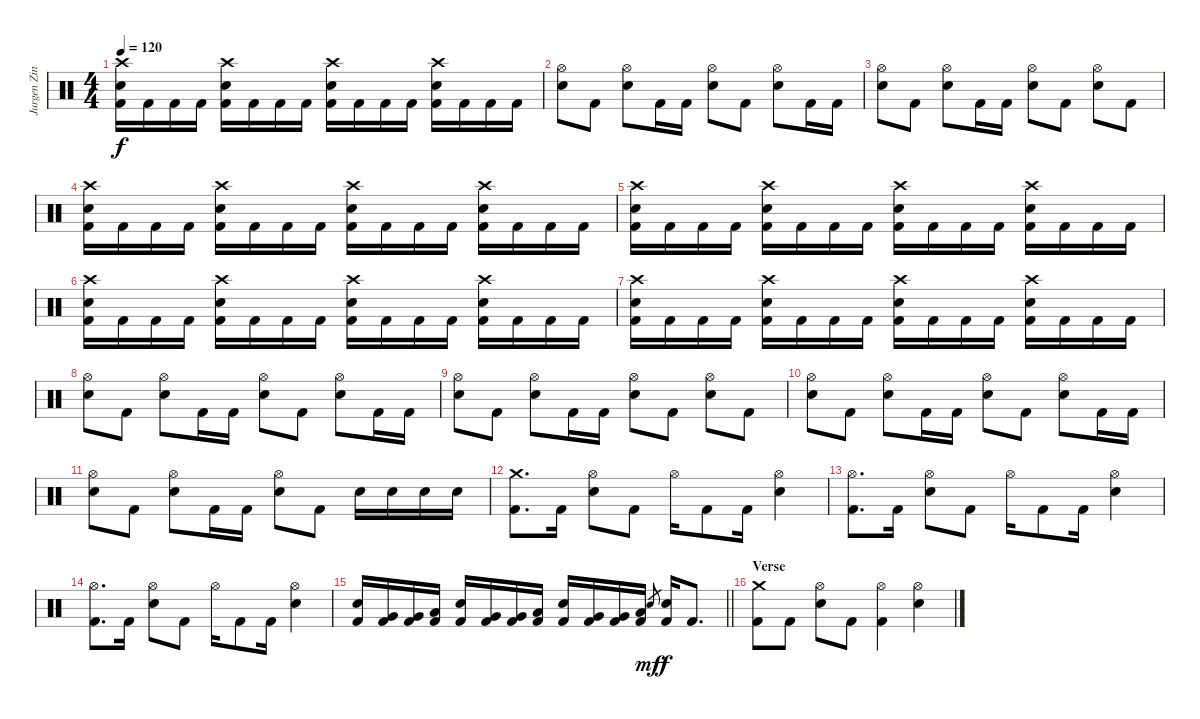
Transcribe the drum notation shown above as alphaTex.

\track ("Jurgen Zing" "Jurgen Zin") {instrument percussion}
\staff {score}
\articulation defaults
\ts (4 4)
\tempo 120
\clef neutral
\ks c
("Crash high (hit)" "Electric Snare (hit)" "Kick (hit) 2").16{dy f} "Kick (hit) 2".16 "Kick (hit) 2".16 "Kick (hit) 2".16 ("Crash high (hit)" "Electric Snare (hit)" "Kick (hit) 2").16 "Kick (hit) 2".16 "Kick (hit) 2".16 "Kick (hit) 2".16 ("Crash high (hit)" "Electric Snare (hit)" "Kick (hit) 2").16 "Kick (hit) 2".16 "Kick (hit) 2".16 "Kick (hit) 2".16 ("Crash high (hit)" "Electric Snare (hit)" "Kick (hit) 2").16 "Kick (hit) 2".16 "Kick (hit) 2".16 "Kick (hit) 2".16 |
("Hi-Hat (open)" "Electric Snare (hit)").8 "Kick (hit) 2".8 ("Hi-Hat (open)" "Electric Snare (hit)").8 "Kick (hit) 2".16 "Kick (hit) 2".16 ("Hi-Hat (open)" "Electric Snare (hit)").8 "Kick (hit) 2".8 ("Hi-Hat (open)" "Electric Snare (hit)").8 "Kick (hit) 2".16 "Kick (hit) 2".16 |
("Hi-Hat (open)" "Electric Snare (hit)").8 "Kick (hit) 2".8 ("Hi-Hat (open)" "Electric Snare (hit)").8 "Kick (hit) 2".16 "Kick (hit) 2".16 ("Hi-Hat (open)" "Electric Snare (hit)").8 "Kick (hit) 2".8 ("Hi-Hat (open)" "Electric Snare (hit)").8 "Kick (hit) 2".8 |
("Crash high (hit)" "Electric Snare (hit)" "Kick (hit) 2").16 "Kick (hit) 2".16 "Kick (hit) 2".16 "Kick (hit) 2".16 ("Crash high (hit)" "Electric Snare (hit)" "Kick (hit) 2").16 "Kick (hit) 2".16 "Kick (hit) 2".16 "Kick (hit) 2".16 ("Crash high (hit)" "Electric Snare (hit)" "Kick (hit) 2").16 "Kick (hit) 2".16 "Kick (hit) 2".16 "Kick (hit) 2".16 ("Crash high (hit)" "Electric Snare (hit)" "Kick (hit) 2").16 "Kick (hit) 2".16 "Kick (hit) 2".16 "Kick (hit) 2".16 |
("Crash high (hit)" "Electric Snare (hit)" "Kick (hit) 2").16 "Kick (hit) 2".16 "Kick (hit) 2".16 "Kick (hit) 2".16 ("Crash high (hit)" "Electric Snare (hit)" "Kick (hit) 2").16 "Kick (hit) 2".16 "Kick (hit) 2".16 "Kick (hit) 2".16 ("Crash high (hit)" "Electric Snare (hit)" "Kick (hit) 2").16 "Kick (hit) 2".16 "Kick (hit) 2".16 "Kick (hit) 2".16 ("Crash high (hit)" "Electric Snare (hit)" "Kick (hit) 2").16 "Kick (hit) 2".16 "Kick (hit) 2".16 "Kick (hit) 2".16 |
("Crash high (hit)" "Electric Snare (hit)" "Kick (hit) 2").16 "Kick (hit) 2".16 "Kick (hit) 2".16 "Kick (hit) 2".16 ("Crash high (hit)" "Electric Snare (hit)" "Kick (hit) 2").16 "Kick (hit) 2".16 "Kick (hit) 2".16 "Kick (hit) 2".16 ("Crash high (hit)" "Electric Snare (hit)" "Kick (hit) 2").16 "Kick (hit) 2".16 "Kick (hit) 2".16 "Kick (hit) 2".16 ("Crash high (hit)" "Electric Snare (hit)" "Kick (hit) 2").16 "Kick (hit) 2".16 "Kick (hit) 2".16 "Kick (hit) 2".16 |
("Crash high (hit)" "Electric Snare (hit)" "Kick (hit) 2").16 "Kick (hit) 2".16 "Kick (hit) 2".16 "Kick (hit) 2".16 ("Crash high (hit)" "Electric Snare (hit)" "Kick (hit) 2").16 "Kick (hit) 2".16 "Kick (hit) 2".16 "Kick (hit) 2".16 ("Crash high (hit)" "Electric Snare (hit)" "Kick (hit) 2").16 "Kick (hit) 2".16 "Kick (hit) 2".16 "Kick (hit) 2".16 ("Crash high (hit)" "Electric Snare (hit)" "Kick (hit) 2").16 "Kick (hit) 2".16 "Kick (hit) 2".16 "Kick (hit) 2".16 |
("Hi-Hat (open)" "Electric Snare (hit)").8 "Kick (hit) 2".8 ("Hi-Hat (open)" "Electric Snare (hit)").8 "Kick (hit) 2".16 "Kick (hit) 2".16 ("Hi-Hat (open)" "Electric Snare (hit)").8 "Kick (hit) 2".8 ("Hi-Hat (open)" "Electric Snare (hit)").8 "Kick (hit) 2".16 "Kick (hit) 2".16 |
("Hi-Hat (open)" "Electric Snare (hit)").8 "Kick (hit) 2".8 ("Hi-Hat (open)" "Electric Snare (hit)").8 "Kick (hit) 2".16 "Kick (hit) 2".16 ("Hi-Hat (open)" "Electric Snare (hit)").8 "Kick (hit) 2".8 ("Hi-Hat (open)" "Electric Snare (hit)").8 "Kick (hit) 2".8 |
("Hi-Hat (open)" "Electric Snare (hit)").8 "Kick (hit) 2".8 ("Hi-Hat (open)" "Electric Snare (hit)").8 "Kick (hit) 2".16 "Kick (hit) 2".16 ("Hi-Hat (open)" "Electric Snare (hit)").8 "Kick (hit) 2".8 ("Hi-Hat (open)" "Electric Snare (hit)").8 "Kick (hit) 2".16 "Kick (hit) 2".16 |
("Hi-Hat (open)" "Electric Snare (hit)").8 "Kick (hit) 2".8 ("Hi-Hat (open)" "Electric Snare (hit)").8 "Kick (hit) 2".16 "Kick (hit) 2".16 ("Hi-Hat (open)" "Electric Snare (hit)").8 "Kick (hit) 2".8 "Electric Snare (hit)".16 "Electric Snare (hit)".16 "Electric Snare (hit)".16 "Electric Snare (hit)".16 |
("Crash medium (hit)" "Kick (hit) 2").8{d} "Kick (hit) 2".16 ("Hi-Hat (open)" "Electric Snare (hit)").8 "Kick (hit) 2".8 "Hi-Hat (open)".16 "Kick (hit) 2".8 "Kick (hit) 2".16 ("Hi-Hat (open)" "Electric Snare (hit)").4 |
("Hi-Hat (open)" "Kick (hit) 2").8{d} "Kick (hit) 2".16 ("Hi-Hat (open)" "Electric Snare (hit)").8 "Kick (hit) 2".8 "Hi-Hat (open)".16 "Kick (hit) 2".8 "Kick (hit) 2".16 ("Hi-Hat (open)" "Electric Snare (hit)").4 |
("Hi-Hat (open)" "Kick (hit) 2").8{d} "Kick (hit) 2".16 ("Hi-Hat (open)" "Electric Snare (hit)").8 "Kick (hit) 2".8 "Hi-Hat (open)".16 "Kick (hit) 2".8 "Kick (hit) 2".16 ("Hi-Hat (open)" "Electric Snare (hit)").4 |
\barLineRight lightlight
("Electric Snare (hit)" "Kick (hit) 2").16 ("Very Low Tom (hit)" "Kick (hit) 2").16 ("Very Low Tom (hit)" "Kick (hit) 2").16 ("Low Floor Tom (hit)" "Kick (hit) 2").16 ("Electric Snare (hit)" "Kick (hit) 2").16 ("Very Low Tom (hit)" "Kick (hit) 2").16 ("Very Low Tom (hit)" "Kick (hit) 2").16 ("Low Floor Tom (hit)" "Kick (hit) 2").16 ("Electric Snare (hit)" "Kick (hit) 2").16 ("Very Low Tom (hit)" "Kick (hit) 2").16 ("Very Low Tom (hit)" "Kick (hit) 2").16 ("Low Floor Tom (hit)" "Kick (hit) 2").16 "Electric Snare (hit)".8{gr dy mf} ("Electric Snare (hit)" "Kick (hit) 2").16{dy f} "Kick (hit) 2".8{d} |
\section ("" "Verse")
("Crash medium (hit)" "Kick (hit) 2").8 "Kick (hit) 2".8 ("Hi-Hat (open)" "Electric Snare (hit)").8 "Kick (hit) 2".8 ("Hi-Hat (open)" "Kick (hit) 2").4 ("Hi-Hat (open)" "Electric Snare (hit)").4
